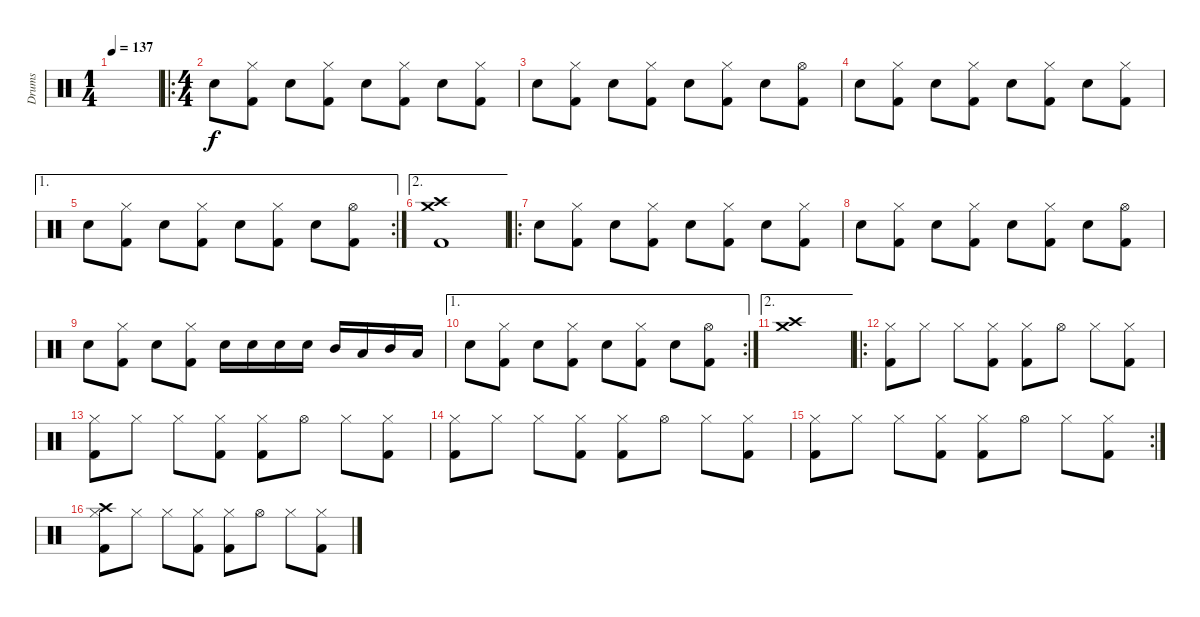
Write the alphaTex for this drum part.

\track ("Drums" "Drums") {instrument percussion}
\staff {score}
\articulation defaults
\ts (1 4)
\tempo 137
\clef neutral
\ks c
|
\ro
\ts (4 4)
"Snare (hit) 2".8 ("Hi-Hat (closed)" "Kick (hit) 2").8 "Snare (hit) 2".8 ("Hi-Hat (closed)" "Kick (hit) 2").8 "Snare (hit) 2".8 ("Hi-Hat (closed)" "Kick (hit) 2").8 "Snare (hit) 2".8 ("Hi-Hat (closed)" "Kick (hit) 2").8 |
"Snare (hit) 2".8 ("Hi-Hat (closed)" "Kick (hit) 2").8 "Snare (hit) 2".8 ("Hi-Hat (closed)" "Kick (hit) 2").8 "Snare (hit) 2".8 ("Hi-Hat (closed)" "Kick (hit) 2").8 "Snare (hit) 2".8 ("Hi-Hat (open)" "Kick (hit) 2").8 |
"Snare (hit) 2".8 ("Hi-Hat (closed)" "Kick (hit) 2").8 "Snare (hit) 2".8 ("Hi-Hat (closed)" "Kick (hit) 2").8 "Snare (hit) 2".8 ("Hi-Hat (closed)" "Kick (hit) 2").8 "Snare (hit) 2".8 ("Hi-Hat (closed)" "Kick (hit) 2").8 |
\ae 1
\rc 2 "Snare (hit) 2".8
("Hi-Hat (closed)" "Kick (hit) 2").8 "Snare (hit) 2".8 ("Hi-Hat (closed)" "Kick (hit) 2").8 "Snare (hit) 2".8 ("Hi-Hat (closed)" "Kick (hit) 2").8 "Snare (hit) 2".8 ("Hi-Hat (open)" "Kick (hit) 2").8 |
\ae 2
("Crash medium (hit)" "Crash high (hit)" "Kick (hit) 2").1 |
\ro "Snare (hit) 2".8
("Hi-Hat (closed)" "Kick (hit) 2").8 "Snare (hit) 2".8 ("Hi-Hat (closed)" "Kick (hit) 2").8 "Snare (hit) 2".8 ("Hi-Hat (closed)" "Kick (hit) 2").8 "Snare (hit) 2".8 ("Hi-Hat (closed)" "Kick (hit) 2").8 |
"Snare (hit) 2".8 ("Hi-Hat (closed)" "Kick (hit) 2").8 "Snare (hit) 2".8 ("Hi-Hat (closed)" "Kick (hit) 2").8 "Snare (hit) 2".8 ("Hi-Hat (closed)" "Kick (hit) 2").8 "Snare (hit) 2".8 ("Hi-Hat (open)" "Kick (hit) 2").8 |
"Snare (hit) 2".8 ("Hi-Hat (closed)" "Kick (hit) 2").8 "Snare (hit) 2".8 ("Hi-Hat (closed)" "Kick (hit) 2").8 "Snare (hit) 2".16 "Snare (hit) 2".16 "Snare (hit) 2".16 "Snare (hit) 2".16 "Mid Tom (hit)".16 "Low Tom (hit)".16 "Mid Tom (hit)".16 "Low Tom (hit)".16 |
\ae 1
\rc 2 "Snare (hit) 2".8
("Hi-Hat (closed)" "Kick (hit) 2").8 "Snare (hit) 2".8 ("Hi-Hat (closed)" "Kick (hit) 2").8 "Snare (hit) 2".8 ("Hi-Hat (closed)" "Kick (hit) 2").8 "Snare (hit) 2".8 ("Hi-Hat (open)" "Kick (hit) 2").8 |
\ae 2
("Crash high (hit)" "Crash medium (hit)").1 |
\ro
("Hi-Hat (closed)" "Kick (hit) 2").8 "Hi-Hat (closed)".8 "Hi-Hat (closed)".8 ("Hi-Hat (closed)" "Kick (hit) 2").8 ("Hi-Hat (closed)" "Kick (hit) 2").8 "Hi-Hat (open)".8 "Hi-Hat (closed)".8 ("Hi-Hat (closed)" "Kick (hit) 2").8 |
("Hi-Hat (closed)" "Kick (hit) 2").8 "Hi-Hat (closed)".8 "Hi-Hat (closed)".8 ("Hi-Hat (closed)" "Kick (hit) 2").8 ("Hi-Hat (closed)" "Kick (hit) 2").8 "Hi-Hat (open)".8 "Hi-Hat (closed)".8 ("Hi-Hat (closed)" "Kick (hit) 2").8 |
("Hi-Hat (closed)" "Kick (hit) 2").8 "Hi-Hat (closed)".8 "Hi-Hat (closed)".8 ("Hi-Hat (closed)" "Kick (hit) 2").8 ("Hi-Hat (closed)" "Kick (hit) 2").8 "Hi-Hat (open)".8 "Hi-Hat (closed)".8 ("Hi-Hat (closed)" "Kick (hit) 2").8 |
\rc 2
("Hi-Hat (closed)" "Kick (hit) 2").8 "Hi-Hat (closed)".8 "Hi-Hat (closed)".8 ("Hi-Hat (closed)" "Kick (hit) 2").8 ("Hi-Hat (closed)" "Kick (hit) 2").8 "Hi-Hat (open)".8 "Hi-Hat (closed)".8 ("Hi-Hat (closed)" "Kick (hit) 2").8 |
("Crash high (hit)" "Hi-Hat (closed)" "Kick (hit) 2").8 "Hi-Hat (closed)".8 "Hi-Hat (closed)".8 ("Hi-Hat (closed)" "Kick (hit) 2").8 ("Hi-Hat (closed)" "Kick (hit) 2").8 "Hi-Hat (open)".8 "Hi-Hat (closed)".8 ("Hi-Hat (closed)" "Kick (hit) 2").8
